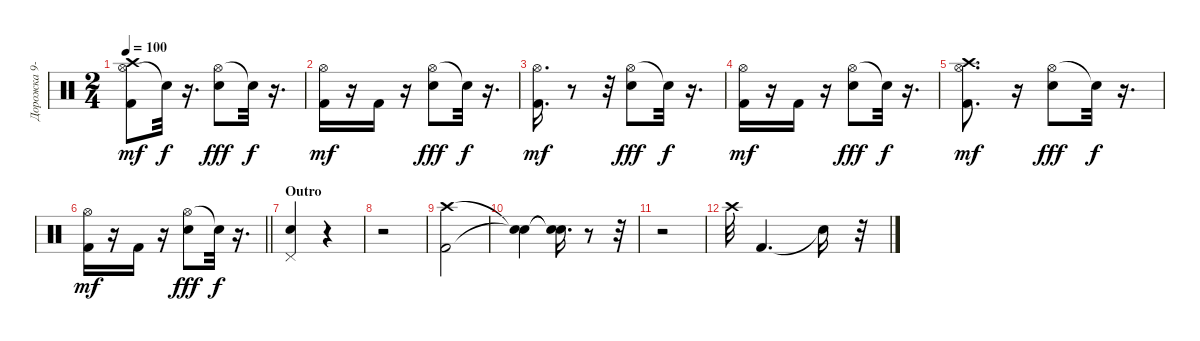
\track ("Дорожка 9-10" "Дорожка 9-") {instrument percussion}
\staff {score}
\articulation defaults
\ts (2 4)
\tempo 100
\clef neutral
\ks c
("Hi-Hat (open)" "Crash high (hit)" "Kick (hit) 2").8{dy mf} "Snare (hit)"{t}.32{dy f} r.16{d} ("Hi-Hat (open)" "Snare (hit) 2").8{dy fff} "Snare (hit)"{t}.32{dy f} r.16{d} |
("Hi-Hat (open)" "Kick (hit) 2").16{dy mf} r.16 "Kick (hit) 2".16 r.16 ("Hi-Hat (open)" "Snare (hit) 2").8{dy fff} "Snare (hit)"{t}.32{dy f} r.16{d} |
("Hi-Hat (open)" "Kick (hit) 2").16{d dy mf} r.8 r.32 ("Hi-Hat (open)" "Snare (hit) 2").8{dy fff} "Snare (hit)"{t}.32{dy f} r.16{d} |
("Hi-Hat (open)" "Kick (hit) 2").16{dy mf} r.16 "Kick (hit) 2".16 r.16 ("Hi-Hat (open)" "Snare (hit) 2").8{dy fff} "Snare (hit)"{t}.32{dy f} r.16{d} |
("Hi-Hat (open)" "Crash high (hit)" "Kick (hit) 2").8{d dy mf} r.16 ("Hi-Hat (open)" "Snare (hit) 2").8{dy fff} "Snare (hit)"{t}.32{dy f} r.16{d} |
\barLineRight lightlight
("Hi-Hat (open)" "Kick (hit) 2").16{dy mf} r.16 "Kick (hit) 2".16 r.16 ("Hi-Hat (open)" "Snare (hit) 2").8{dy fff} "Snare (hit)"{t}.32{dy f} r.16{d} |
\section ("" "Outro")
("Pedal Hi-Hat (hit)" "Snare (hit) 2").4 r.4 |
r.2 |
("Crash high (hit)" "Kick (hit) 2").2 |
("Snare (hit)"{t} "Snare (hit)"{t}).4 ("Snare (hit)"{t} "Snare (hit)"{t}).16{d} r.8 r.32 |
r.2 |
"Crash high (hit)".32 "Kick (hit) 2".4{d} "Snare (hit)"{t}.16 r.32
